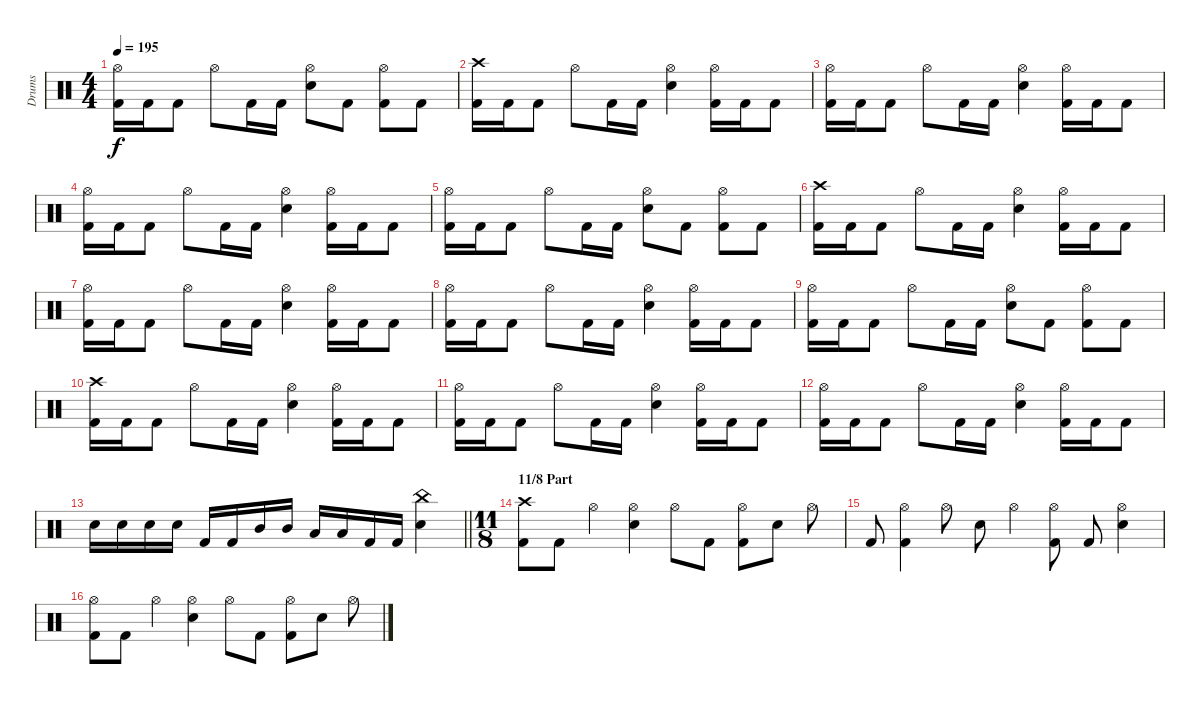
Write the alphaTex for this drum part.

\track ("Drums" "Drums") {instrument percussion}
\staff {score}
\articulation defaults
\ts (4 4)
\tempo 195
\clef neutral
\ks c
("Hi-Hat (open)" "Kick (hit) 2").16{dy f} "Kick (hit) 2".16 "Kick (hit) 2".8 "Hi-Hat (open)".8 "Kick (hit) 2".16 "Kick (hit) 2".16 ("Hi-Hat (open)" "Electric Snare (hit)").8 "Kick (hit) 2".8 ("Hi-Hat (open)" "Kick (hit) 2").8 "Kick (hit) 2".8 |
("Crash high (hit)" "Kick (hit) 2").16 "Kick (hit) 2".16 "Kick (hit) 2".8 "Hi-Hat (open)".8 "Kick (hit) 2".16 "Kick (hit) 2".16 ("Hi-Hat (open)" "Electric Snare (hit)").4 ("Hi-Hat (open)" "Kick (hit) 2").16 "Kick (hit) 2".16 "Kick (hit) 2".8 |
("Hi-Hat (open)" "Kick (hit) 2").16 "Kick (hit) 2".16 "Kick (hit) 2".8 "Hi-Hat (open)".8 "Kick (hit) 2".16 "Kick (hit) 2".16 ("Hi-Hat (open)" "Electric Snare (hit)").4 ("Hi-Hat (open)" "Kick (hit) 2").16 "Kick (hit) 2".16 "Kick (hit) 2".8 |
("Hi-Hat (open)" "Kick (hit) 2").16 "Kick (hit) 2".16 "Kick (hit) 2".8 "Hi-Hat (open)".8 "Kick (hit) 2".16 "Kick (hit) 2".16 ("Hi-Hat (open)" "Electric Snare (hit)").4 ("Hi-Hat (open)" "Kick (hit) 2").16 "Kick (hit) 2".16 "Kick (hit) 2".8 |
("Hi-Hat (open)" "Kick (hit) 2").16 "Kick (hit) 2".16 "Kick (hit) 2".8 "Hi-Hat (open)".8 "Kick (hit) 2".16 "Kick (hit) 2".16 ("Hi-Hat (open)" "Electric Snare (hit)").8 "Kick (hit) 2".8 ("Hi-Hat (open)" "Kick (hit) 2").8 "Kick (hit) 2".8 |
("Crash high (hit)" "Kick (hit) 2").16 "Kick (hit) 2".16 "Kick (hit) 2".8 "Hi-Hat (open)".8 "Kick (hit) 2".16 "Kick (hit) 2".16 ("Hi-Hat (open)" "Electric Snare (hit)").4 ("Hi-Hat (open)" "Kick (hit) 2").16 "Kick (hit) 2".16 "Kick (hit) 2".8 |
("Hi-Hat (open)" "Kick (hit) 2").16 "Kick (hit) 2".16 "Kick (hit) 2".8 "Hi-Hat (open)".8 "Kick (hit) 2".16 "Kick (hit) 2".16 ("Hi-Hat (open)" "Electric Snare (hit)").4 ("Hi-Hat (open)" "Kick (hit) 2").16 "Kick (hit) 2".16 "Kick (hit) 2".8 |
("Hi-Hat (open)" "Kick (hit) 2").16 "Kick (hit) 2".16 "Kick (hit) 2".8 "Hi-Hat (open)".8 "Kick (hit) 2".16 "Kick (hit) 2".16 ("Hi-Hat (open)" "Electric Snare (hit)").4 ("Hi-Hat (open)" "Kick (hit) 2").16 "Kick (hit) 2".16 "Kick (hit) 2".8 |
("Hi-Hat (open)" "Kick (hit) 2").16 "Kick (hit) 2".16 "Kick (hit) 2".8 "Hi-Hat (open)".8 "Kick (hit) 2".16 "Kick (hit) 2".16 ("Hi-Hat (open)" "Electric Snare (hit)").8 "Kick (hit) 2".8 ("Hi-Hat (open)" "Kick (hit) 2").8 "Kick (hit) 2".8 |
("Crash high (hit)" "Kick (hit) 2").16 "Kick (hit) 2".16 "Kick (hit) 2".8 "Hi-Hat (open)".8 "Kick (hit) 2".16 "Kick (hit) 2".16 ("Hi-Hat (open)" "Electric Snare (hit)").4 ("Hi-Hat (open)" "Kick (hit) 2").16 "Kick (hit) 2".16 "Kick (hit) 2".8 |
("Hi-Hat (open)" "Kick (hit) 2").16 "Kick (hit) 2".16 "Kick (hit) 2".8 "Hi-Hat (open)".8 "Kick (hit) 2".16 "Kick (hit) 2".16 ("Hi-Hat (open)" "Electric Snare (hit)").4 ("Hi-Hat (open)" "Kick (hit) 2").16 "Kick (hit) 2".16 "Kick (hit) 2".8 |
("Hi-Hat (open)" "Kick (hit) 2").16 "Kick (hit) 2".16 "Kick (hit) 2".8 "Hi-Hat (open)".8 "Kick (hit) 2".16 "Kick (hit) 2".16 ("Hi-Hat (open)" "Electric Snare (hit)").4 ("Hi-Hat (open)" "Kick (hit) 2").16 "Kick (hit) 2".16 "Kick (hit) 2".8 |
\barLineRight lightlight "Electric Snare (hit)".16 "Electric Snare (hit)".16 "Electric Snare (hit)".16 "Electric Snare (hit)".16 "Kick (hit) 2".16 "Kick (hit) 2".16 "Mid Tom (hit)".16 "Mid Tom (hit)".16 "Low Tom (hit)".16 "Low Tom (hit)".16 "Kick (hit) 2".16 "Kick (hit) 2".16
("China (hit)" "Electric Snare (hit)").4 |
\ts (11 8)
\section ("" "11/8 Part")
("Crash high (hit)" "Kick (hit) 2").8 "Kick (hit) 2".8 "Hi-Hat (open)".4 ("Hi-Hat (open)" "Electric Snare (hit)").4 "Hi-Hat (open)".8 "Kick (hit) 2".8 ("Hi-Hat (open)" "Kick (hit) 2").8 "Electric Snare (hit)".8 "Hi-Hat (open)".8 |
"Kick (hit) 2".8 ("Hi-Hat (open)" "Kick (hit) 2").4 "Hi-Hat (open)".8 "Electric Snare (hit)".8 "Hi-Hat (open)".4 ("Hi-Hat (open)" "Kick (hit) 2").8 "Kick (hit) 2".8 ("Hi-Hat (open)" "Electric Snare (hit)").4 |
("Hi-Hat (open)" "Kick (hit) 2").8 "Kick (hit) 2".8 "Hi-Hat (open)".4 ("Hi-Hat (open)" "Electric Snare (hit)").4 "Hi-Hat (open)".8 "Kick (hit) 2".8 ("Hi-Hat (open)" "Kick (hit) 2").8 "Electric Snare (hit)".8 "Hi-Hat (open)".8
